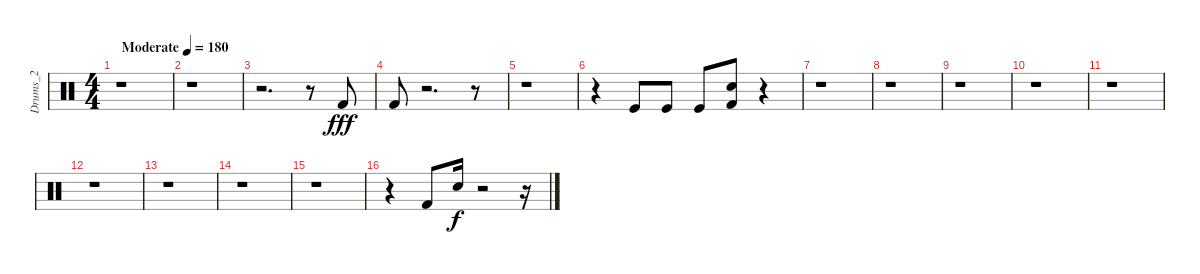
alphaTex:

\track ("Drums_2" "Drums_2") {instrument percussion}
\staff {score}
\articulation defaults
\ts (4 4)
\tempo (180 "Moderate")
\clef neutral
\ks c
r.1{dy fff} |
r.1 |
r.2{d} r.8 "Kick (hit) 2".8 |
"Kick (hit) 2".8 r.2{d} r.8 |
r.1 |
r.4 "Kick (hit)".8 "Kick (hit)".8 "Kick (hit)".8 ("Kick (hit) 2" "Snare (hit) 2").8 r.4 |
r.1 |
r.1 |
r.1 |
r.1 |
r.1 |
r.1 |
r.1 |
r.1 |
r.1 |
r.4 "Kick (hit) 2".8 "Snare (hit) 2".16{dy f} r.2 r.16
